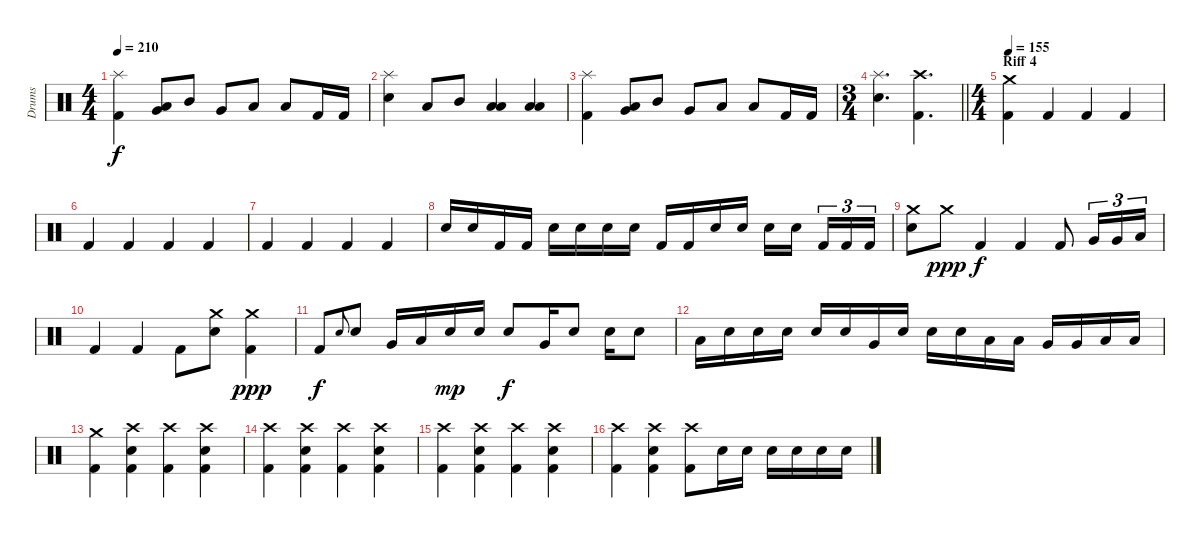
\track ("Drums" "Drums") {instrument percussion}
\staff {score}
\articulation defaults
\ts (4 4)
\tempo 210
\clef neutral
\ks c
("Splash (hit)" "Kick (hit) 2").4{dy f} ("Very Low Tom (hit)" "Low Floor Tom (hit)").8 "Mid Tom (hit)".8 "Very Low Tom (hit)".8 "Low Floor Tom (hit)".8 "Low Floor Tom (hit)".8 "Kick (hit) 2".16 "Kick (hit) 2".16 |
("Splash (hit)" "Electric Snare (hit)").4 "Low Floor Tom (hit)".8 "Mid Tom (hit)".8 ("Low Tom (hit)" "Low Floor Tom (hit)").4 ("Low Tom (hit)" "Low Floor Tom (hit)").4 |
("Splash (hit)" "Kick (hit) 2").4 ("Very Low Tom (hit)" "Low Floor Tom (hit)").8 "Mid Tom (hit)".8 "Very Low Tom (hit)".8 "Low Floor Tom (hit)".8 "Low Floor Tom (hit)".8 "Kick (hit) 2".16 "Kick (hit) 2".16 |
\ts (3 4)
\barLineRight lightlight
("Electric Snare (hit)" "Splash (hit)").4{d} ("Kick (hit) 2" "Crash high (hit)").4{d} |
\ts (4 4)
\section ("" "Riff 4")
\tempo 155
("Crash medium (hit)" "Kick (hit) 2").4 "Kick (hit) 2".4 "Kick (hit) 2".4 "Kick (hit) 2".4 |
"Kick (hit) 2".4 "Kick (hit) 2".4 "Kick (hit) 2".4 "Kick (hit) 2".4 |
"Kick (hit) 2".4 "Kick (hit) 2".4 "Kick (hit) 2".4 "Kick (hit) 2".4 |
"Electric Snare (hit)".16 "Electric Snare (hit)".16 "Kick (hit) 2".16 "Kick (hit) 2".16 "Electric Snare (hit)".16 "Electric Snare (hit)".16 "Electric Snare (hit)".16 "Electric Snare (hit)".16 "Kick (hit) 2".16 "Kick (hit) 2".16 "Electric Snare (hit)".16 "Electric Snare (hit)".16 "Electric Snare (hit)".16 "Electric Snare (hit)".16{beam splitsecondary} "Kick (hit) 2".16{tu (3 2)} "Kick (hit) 2".16{tu (3 2)} "Kick (hit) 2".16{tu (3 2)} |
("Electric Snare (hit)" "Crash medium (hit)").8 "Crash medium (hit)".8{dy ppp} "Kick (hit) 2".4{dy f} "Kick (hit) 2".4 "Kick (hit) 2".8 "Very Low Tom (hit)".16{tu (3 2)} "Very Low Tom (hit)".16{tu (3 2)} "Low Floor Tom (hit)".16{tu (3 2)} |
"Kick (hit) 2".4 "Kick (hit) 2".4 "Kick (hit) 2".8 ("Electric Snare (hit)" "Crash medium (hit)").8 ("Kick (hit) 2" "Crash medium (hit)").4{dy ppp} |
"Kick (hit) 2".8{dy f} "Electric Snare (hit)".8{gr onbeat} "Electric Snare (hit)".8 "Very Low Tom (hit)".16 "Low Tom (hit)".16 "Electric Snare (hit)".16{dy mp} "Electric Snare (hit)".16 "Electric Snare (hit)".8{dy f} "Very Low Tom (hit)".16 "Electric Snare (hit)".8 "Electric Snare (hit)".16 "Electric Snare (hit)".8 |
"Low Tom (hit)".16 "Electric Snare (hit)".16 "Electric Snare (hit)".16 "Electric Snare (hit)".16 "Electric Snare (hit)".16 "Electric Snare (hit)".16 "Very Low Tom (hit)".16 "Electric Snare (hit)".16 "Electric Snare (hit)".16 "Electric Snare (hit)".16 "Low Tom (hit)".16 "Low Tom (hit)".16 "Very Low Tom (hit)".16 "Very Low Tom (hit)".16 "Low Floor Tom (hit)".16 "Low Floor Tom (hit)".16 |
("Crash medium (hit)" "Kick (hit) 2").4 ("Kick (hit) 2" "Crash high (hit)" "Electric Snare (hit)").4 ("Crash high (hit)" "Kick (hit) 2").4 ("Kick (hit) 2" "Crash high (hit)" "Electric Snare (hit)").4 |
("Crash high (hit)" "Kick (hit) 2").4 ("Kick (hit) 2" "Crash high (hit)" "Electric Snare (hit)").4 ("Crash high (hit)" "Kick (hit) 2").4 ("Kick (hit) 2" "Crash high (hit)" "Electric Snare (hit)").4 |
("Crash high (hit)" "Kick (hit) 2").4 ("Kick (hit) 2" "Crash high (hit)" "Electric Snare (hit)").4 ("Crash high (hit)" "Kick (hit) 2").4 ("Kick (hit) 2" "Crash high (hit)" "Electric Snare (hit)").4 |
("Crash high (hit)" "Kick (hit) 2").4 ("Kick (hit) 2" "Crash high (hit)" "Electric Snare (hit)").4 ("Crash high (hit)" "Kick (hit) 2").8 "Electric Snare (hit)".16 "Electric Snare (hit)".16 "Electric Snare (hit)".16 "Electric Snare (hit)".16 "Electric Snare (hit)".16 "Electric Snare (hit)".16
